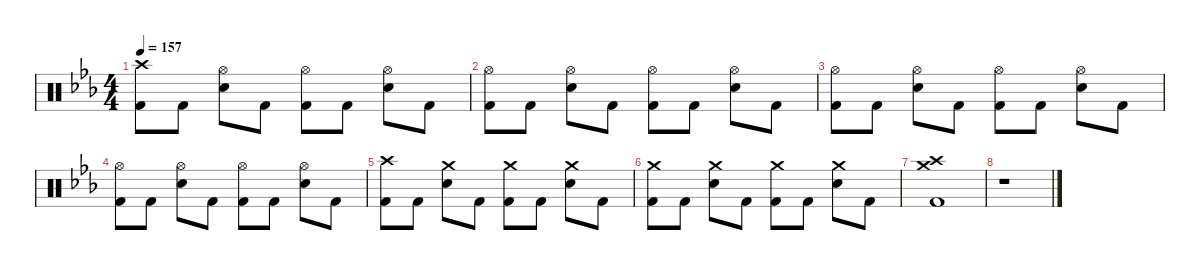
\defaultSystemsLayout 4
\hideDynamics
\bracketExtendMode nobrackets
\singleTrackTrackNamePolicy hidden
\multiTrackTrackNamePolicy hidden
\firstSystemTrackNameMode fullname
\otherSystemsTrackNameOrientation horizontal
\track ("Drums" "drm.") {instrument percussion}
\staff {score}
\articulation defaults
\ts (4 4)
\tempo 157
\clef neutral
\ks cminor
("Crash high (hit)"{acc forcenatural} "Kick (hit) 2"{acc forcenatural}).8{dy f beam Down} "Kick (hit) 2"{acc forcenatural}.8{beam Down} ("Hi-Hat (open)"{acc forcenatural} "Snare (hit) 2"{acc forcenatural}).8{beam Down} "Kick (hit) 2"{acc forcenatural}.8{beam Down} ("Hi-Hat (open)"{acc forcenatural} "Kick (hit) 2"{acc forcenatural}).8{beam Down} "Kick (hit) 2"{acc forcenatural}.8{beam Down} ("Hi-Hat (open)"{acc forcenatural} "Snare (hit) 2"{acc forcenatural}).8{beam Down} "Kick (hit) 2"{acc forcenatural}.8{beam Down} |
("Hi-Hat (open)"{acc forcenatural} "Kick (hit) 2"{acc forcenatural}).8{beam Down} "Kick (hit) 2"{acc forcenatural}.8{beam Down} ("Hi-Hat (open)"{acc forcenatural} "Snare (hit) 2"{acc forcenatural}).8{beam Down} "Kick (hit) 2"{acc forcenatural}.8{beam Down} ("Hi-Hat (open)"{acc forcenatural} "Kick (hit) 2"{acc forcenatural}).8{beam Down} "Kick (hit) 2"{acc forcenatural}.8{beam Down} ("Hi-Hat (open)"{acc forcenatural} "Snare (hit) 2"{acc forcenatural}).8{beam Down} "Kick (hit) 2"{acc forcenatural}.8{beam Down} |
("Hi-Hat (open)"{acc forcenatural} "Kick (hit) 2"{acc forcenatural}).8{beam Down} "Kick (hit) 2"{acc forcenatural}.8{beam Down} ("Hi-Hat (open)"{acc forcenatural} "Snare (hit) 2"{acc forcenatural}).8{beam Down} "Kick (hit) 2"{acc forcenatural}.8{beam Down} ("Hi-Hat (open)"{acc forcenatural} "Kick (hit) 2"{acc forcenatural}).8{beam Down} "Kick (hit) 2"{acc forcenatural}.8{beam Down} ("Hi-Hat (open)"{acc forcenatural} "Snare (hit) 2"{acc forcenatural}).8{beam Down} "Kick (hit) 2"{acc forcenatural}.8{beam Down} |
("Hi-Hat (open)"{acc forcenatural} "Kick (hit) 2"{acc forcenatural}).8{beam Down} "Kick (hit) 2"{acc forcenatural}.8{beam Down} ("Hi-Hat (open)"{acc forcenatural} "Snare (hit) 2"{acc forcenatural}).8{beam Down} "Kick (hit) 2"{acc forcenatural}.8{beam Down} ("Hi-Hat (open)"{acc forcenatural} "Kick (hit) 2"{acc forcenatural}).8{beam Down} "Kick (hit) 2"{acc forcenatural}.8{beam Down} ("Hi-Hat (open)"{acc forcenatural} "Snare (hit) 2"{acc forcenatural}).8{beam Down} "Kick (hit) 2"{acc forcenatural}.8{beam Down} |
("Crash high (hit)"{acc forcenatural} "Kick (hit) 2"{acc forcenatural}).8{beam Down} "Kick (hit) 2"{acc forcenatural}.8{beam Down} ("Crash medium (hit)"{acc forcenatural} "Snare (hit) 2"{acc forcenatural}).8{beam Down} "Kick (hit) 2"{acc forcenatural}.8{beam Down} ("Crash medium (hit)"{acc forcenatural} "Kick (hit) 2"{acc forcenatural}).8{beam Down} "Kick (hit) 2"{acc forcenatural}.8{beam Down} ("Crash medium (hit)"{acc forcenatural} "Snare (hit) 2"{acc forcenatural}).8{beam Down} "Kick (hit) 2"{acc forcenatural}.8{beam Down} |
("Crash medium (hit)"{acc forcenatural} "Kick (hit) 2"{acc forcenatural}).8{beam Down} "Kick (hit) 2"{acc forcenatural}.8{beam Down} ("Crash medium (hit)"{acc forcenatural} "Snare (hit) 2"{acc forcenatural}).8{beam Down} "Kick (hit) 2"{acc forcenatural}.8{beam Down} ("Crash medium (hit)"{acc forcenatural} "Kick (hit) 2"{acc forcenatural}).8{beam Down} "Kick (hit) 2"{acc forcenatural}.8{beam Down} ("Crash medium (hit)"{acc forcenatural} "Snare (hit) 2"{acc forcenatural}).8{beam Down} "Kick (hit) 2"{acc forcenatural}.8{beam Down} |
("Crash medium (hit)"{acc forcenatural} "Crash high (hit)"{acc forcenatural} "Kick (hit) 2"{acc forcenatural}).1{beam Down} |
r.1{beam Down}
